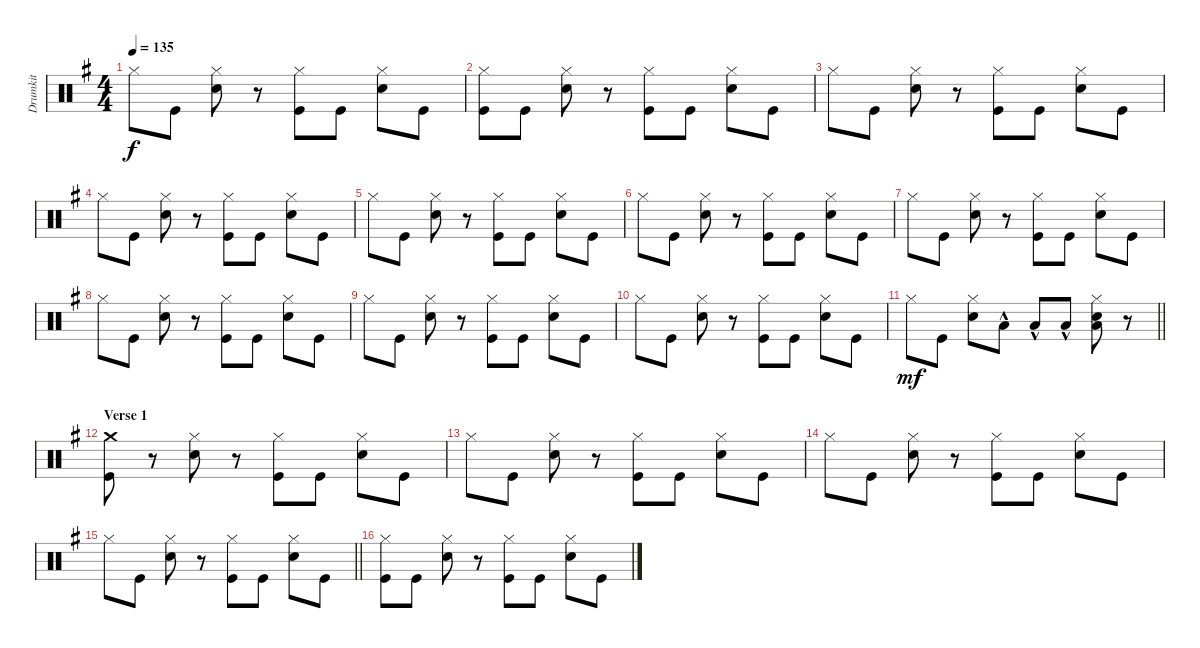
\track ("Drumkit" "Drumkit") {instrument percussion}
\staff {score}
\articulation defaults
\ts (4 4)
\tempo 135
\clef neutral
\ks g "Hi-Hat (closed)".8{dy f} "Kick (hit)".8
("Hi-Hat (closed)" "Snare (hit) 2").8 r.8 ("Hi-Hat (closed)" "Kick (hit)").8 "Kick (hit)".8 ("Hi-Hat (closed)" "Snare (hit) 2").8 "Kick (hit)".8 |
("Hi-Hat (closed)" "Kick (hit)").8 "Kick (hit)".8 ("Hi-Hat (closed)" "Snare (hit) 2").8 r.8 ("Hi-Hat (closed)" "Kick (hit)").8 "Kick (hit)".8 ("Hi-Hat (closed)" "Snare (hit) 2").8 "Kick (hit)".8 |
"Hi-Hat (closed)".8 "Kick (hit)".8 ("Hi-Hat (closed)" "Snare (hit) 2").8 r.8 ("Hi-Hat (closed)" "Kick (hit)").8 "Kick (hit)".8 ("Hi-Hat (closed)" "Snare (hit) 2").8 "Kick (hit)".8 |
"Hi-Hat (closed)".8 "Kick (hit)".8 ("Hi-Hat (closed)" "Snare (hit) 2").8 r.8 ("Hi-Hat (closed)" "Kick (hit)").8 "Kick (hit)".8 ("Hi-Hat (closed)" "Snare (hit) 2").8 "Kick (hit)".8 |
"Hi-Hat (closed)".8 "Kick (hit)".8 ("Hi-Hat (closed)" "Snare (hit) 2").8 r.8 ("Hi-Hat (closed)" "Kick (hit)").8 "Kick (hit)".8 ("Hi-Hat (closed)" "Snare (hit) 2").8 "Kick (hit)".8 |
"Hi-Hat (closed)".8 "Kick (hit)".8 ("Hi-Hat (closed)" "Snare (hit) 2").8 r.8 ("Hi-Hat (closed)" "Kick (hit)").8 "Kick (hit)".8 ("Hi-Hat (closed)" "Snare (hit) 2").8 "Kick (hit)".8 |
"Hi-Hat (closed)".8 "Kick (hit)".8 ("Hi-Hat (closed)" "Snare (hit) 2").8 r.8 ("Hi-Hat (closed)" "Kick (hit)").8 "Kick (hit)".8 ("Hi-Hat (closed)" "Snare (hit) 2").8 "Kick (hit)".8 |
"Hi-Hat (closed)".8 "Kick (hit)".8 ("Hi-Hat (closed)" "Snare (hit) 2").8 r.8 ("Hi-Hat (closed)" "Kick (hit)").8 "Kick (hit)".8 ("Hi-Hat (closed)" "Snare (hit) 2").8 "Kick (hit)".8 |
"Hi-Hat (closed)".8 "Kick (hit)".8 ("Hi-Hat (closed)" "Snare (hit) 2").8 r.8 ("Hi-Hat (closed)" "Kick (hit)").8 "Kick (hit)".8 ("Hi-Hat (closed)" "Snare (hit) 2").8 "Kick (hit)".8 |
"Hi-Hat (closed)".8 "Kick (hit)".8 ("Hi-Hat (closed)" "Snare (hit) 2").8 r.8 ("Hi-Hat (closed)" "Kick (hit)").8 "Kick (hit)".8 ("Hi-Hat (closed)" "Snare (hit) 2").8 "Kick (hit)".8 |
\barLineRight lightlight "Hi-Hat (closed)".8{dy mf} "Kick (hit)".8
("Hi-Hat (closed)" "Snare (hit) 2").8 "Low Floor Tom (hit)"{hac}.8 "Low Floor Tom (hit)"{hac}.8 "Low Floor Tom (hit)"{hac}.8 ("Hi-Hat (closed)" "Snare (hit) 2" "Low Floor Tom (hit)").8 r.8 |
\section ("" "Verse 1")
("Kick (hit)" "Crash medium (hit)").8 r.8 ("Hi-Hat (closed)" "Snare (hit) 2").8 r.8 ("Hi-Hat (closed)" "Kick (hit)").8 "Kick (hit)".8 ("Hi-Hat (closed)" "Snare (hit) 2").8 "Kick (hit)".8 |
"Hi-Hat (closed)".8 "Kick (hit)".8 ("Hi-Hat (closed)" "Snare (hit) 2").8 r.8 ("Hi-Hat (closed)" "Kick (hit)").8 "Kick (hit)".8 ("Hi-Hat (closed)" "Snare (hit) 2").8 "Kick (hit)".8 |
"Hi-Hat (closed)".8 "Kick (hit)".8 ("Hi-Hat (closed)" "Snare (hit) 2").8 r.8 ("Hi-Hat (closed)" "Kick (hit)").8 "Kick (hit)".8 ("Hi-Hat (closed)" "Snare (hit) 2").8 "Kick (hit)".8 |
\barLineRight lightlight "Hi-Hat (closed)".8 "Kick (hit)".8
("Hi-Hat (closed)" "Snare (hit) 2").8 r.8 ("Hi-Hat (closed)" "Kick (hit)").8 "Kick (hit)".8 ("Hi-Hat (closed)" "Snare (hit) 2").8 "Kick (hit)".8 |
("Kick (hit)" "Hi-Hat (closed)").8 "Kick (hit)".8 ("Hi-Hat (closed)" "Snare (hit) 2").8 r.8 ("Hi-Hat (closed)" "Kick (hit)").8 "Kick (hit)".8 ("Hi-Hat (closed)" "Snare (hit) 2").8 "Kick (hit)".8
